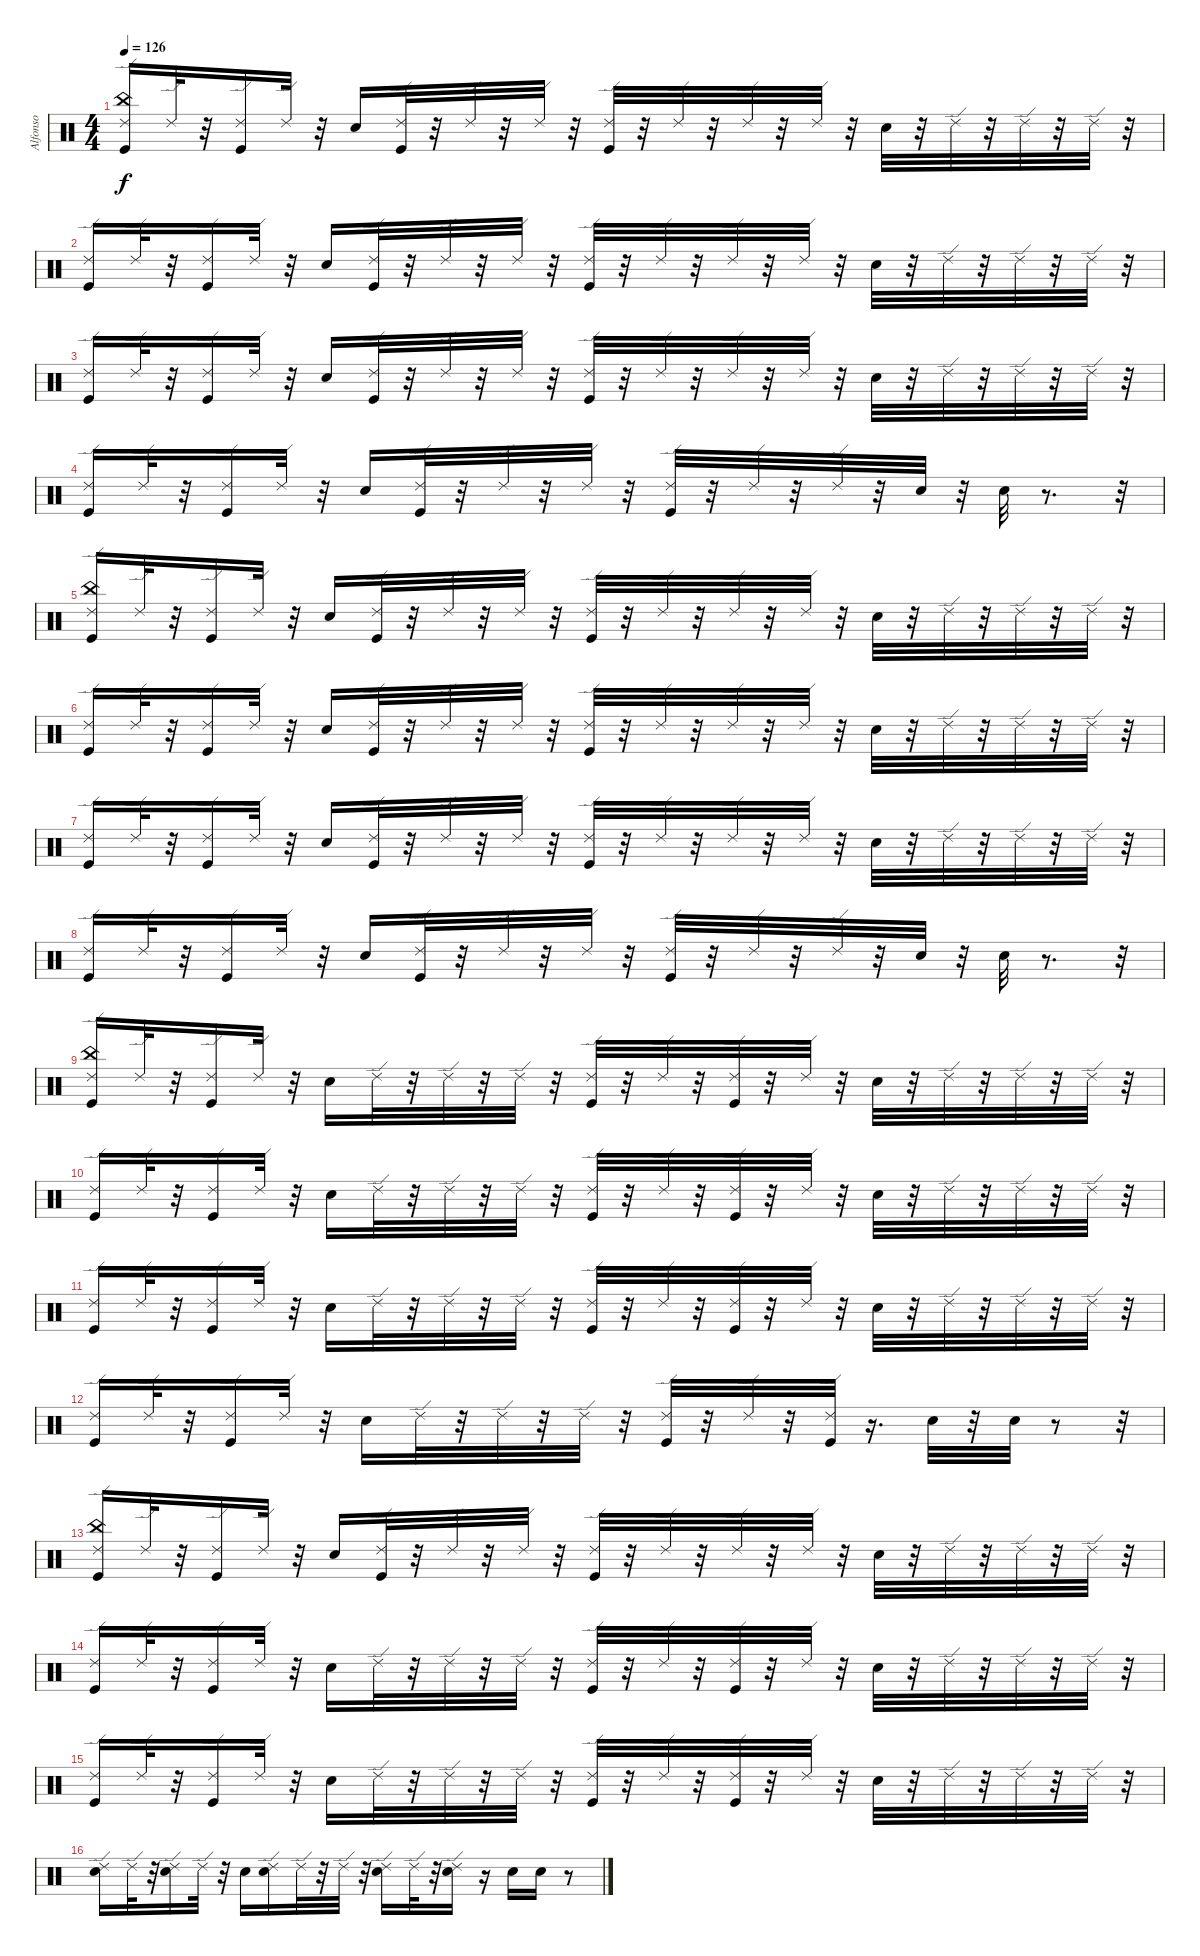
\track ("Alfonso" "Alfonso") {instrument percussion}
\staff {score}
\articulation defaults
\ts (4 4)
\tempo 126
\clef neutral
\ks c
("Ride (edge) 2" "China (hit)" "Kick (hit)").16{dy f} "Ride (edge) 2".32 r.32 ("Ride (edge) 2" "Kick (hit)").16 "Ride (edge) 2".32 r.32 "Snare (hit) 2".16 ("Kick (hit)" "Ride (edge) 2").32 r.32 "Ride (edge) 2".32 r.32 "Ride (edge) 2".32 r.32 ("Kick (hit)" "Ride (edge) 2").32 r.32 "Ride (edge) 2".32 r.32 "Ride (edge) 2".32 r.32 "Ride (edge) 2".32 r.32 "Snare (hit) 2".32 r.32 "Ride (edge) 2".32 r.32 "Ride (edge) 2".32 r.32 "Ride (edge) 2".32 r.32 |
("Ride (edge) 2" "Kick (hit)").16 "Ride (edge) 2".32 r.32 ("Kick (hit)" "Ride (edge) 2").16 "Ride (edge) 2".32 r.32 "Snare (hit) 2".16 ("Ride (edge) 2" "Kick (hit)").32 r.32 "Ride (edge) 2".32 r.32 "Ride (edge) 2".32 r.32 ("Kick (hit)" "Ride (edge) 2").32 r.32 "Ride (edge) 2".32 r.32 "Ride (edge) 2".32 r.32 "Ride (edge) 2".32 r.32 "Snare (hit) 2".32 r.32 "Ride (edge) 2".32 r.32 "Ride (edge) 2".32 r.32 "Ride (edge) 2".32 r.32 |
("Kick (hit)" "Ride (edge) 2").16 "Ride (edge) 2".32 r.32 ("Kick (hit)" "Ride (edge) 2").16 "Ride (edge) 2".32 r.32 "Snare (hit) 2".16 ("Ride (edge) 2" "Kick (hit)").32 r.32 "Ride (edge) 2".32 r.32 "Ride (edge) 2".32 r.32 ("Ride (edge) 2" "Kick (hit)").32 r.32 "Ride (edge) 2".32 r.32 "Ride (edge) 2".32 r.32 "Ride (edge) 2".32 r.32 "Snare (hit) 2".32 r.32 "Ride (edge) 2".32 r.32 "Ride (edge) 2".32 r.32 "Ride (edge) 2".32 r.32 |
("Kick (hit)" "Ride (edge) 2").16 "Ride (edge) 2".32 r.32 ("Kick (hit)" "Ride (edge) 2").16 "Ride (edge) 2".32 r.32 "Snare (hit) 2".16 ("Kick (hit)" "Ride (edge) 2").32 r.32 "Ride (edge) 2".32 r.32 "Ride (edge) 2".32 r.32 ("Kick (hit)" "Ride (edge) 2").32 r.32 "Ride (edge) 2".32 r.32 "Ride (edge) 2".32 r.32 "Snare (hit) 2".32 r.32 "Snare (hit) 2".32 r.8{d} r.32 |
("Ride (edge) 2" "China (hit)" "Kick (hit)").16 "Ride (edge) 2".32 r.32 ("Ride (edge) 2" "Kick (hit)").16 "Ride (edge) 2".32 r.32 "Snare (hit) 2".16 ("Kick (hit)" "Ride (edge) 2").32 r.32 "Ride (edge) 2".32 r.32 "Ride (edge) 2".32 r.32 ("Kick (hit)" "Ride (edge) 2").32 r.32 "Ride (edge) 2".32 r.32 "Ride (edge) 2".32 r.32 "Ride (edge) 2".32 r.32 "Snare (hit) 2".32 r.32 "Ride (edge) 2".32 r.32 "Ride (edge) 2".32 r.32 "Ride (edge) 2".32 r.32 |
("Ride (edge) 2" "Kick (hit)").16 "Ride (edge) 2".32 r.32 ("Kick (hit)" "Ride (edge) 2").16 "Ride (edge) 2".32 r.32 "Snare (hit) 2".16 ("Ride (edge) 2" "Kick (hit)").32 r.32 "Ride (edge) 2".32 r.32 "Ride (edge) 2".32 r.32 ("Kick (hit)" "Ride (edge) 2").32 r.32 "Ride (edge) 2".32 r.32 "Ride (edge) 2".32 r.32 "Ride (edge) 2".32 r.32 "Snare (hit) 2".32 r.32 "Ride (edge) 2".32 r.32 "Ride (edge) 2".32 r.32 "Ride (edge) 2".32 r.32 |
("Kick (hit)" "Ride (edge) 2").16 "Ride (edge) 2".32 r.32 ("Kick (hit)" "Ride (edge) 2").16 "Ride (edge) 2".32 r.32 "Snare (hit) 2".16 ("Ride (edge) 2" "Kick (hit)").32 r.32 "Ride (edge) 2".32 r.32 "Ride (edge) 2".32 r.32 ("Ride (edge) 2" "Kick (hit)").32 r.32 "Ride (edge) 2".32 r.32 "Ride (edge) 2".32 r.32 "Ride (edge) 2".32 r.32 "Snare (hit) 2".32 r.32 "Ride (edge) 2".32 r.32 "Ride (edge) 2".32 r.32 "Ride (edge) 2".32 r.32 |
("Kick (hit)" "Ride (edge) 2").16 "Ride (edge) 2".32 r.32 ("Kick (hit)" "Ride (edge) 2").16 "Ride (edge) 2".32 r.32 "Snare (hit) 2".16 ("Kick (hit)" "Ride (edge) 2").32 r.32 "Ride (edge) 2".32 r.32 "Ride (edge) 2".32 r.32 ("Kick (hit)" "Ride (edge) 2").32 r.32 "Ride (edge) 2".32 r.32 "Ride (edge) 2".32 r.32 "Snare (hit) 2".32 r.32 "Snare (hit) 2".32 r.8{d} r.32 |
("Ride (edge) 2" "China (hit)" "Kick (hit)").16 "Ride (edge) 2".32 r.32 ("Ride (edge) 2" "Kick (hit)").16 "Ride (edge) 2".32 r.32 "Snare (hit) 2".16 "Ride (edge) 2".32 r.32 "Ride (edge) 2".32 r.32 "Ride (edge) 2".32 r.32 ("Kick (hit)" "Ride (edge) 2").32 r.32 "Ride (edge) 2".32 r.32 ("Kick (hit)" "Ride (edge) 2").32 r.32 "Ride (edge) 2".32 r.32 "Snare (hit) 2".32 r.32 "Ride (edge) 2".32 r.32 "Ride (edge) 2".32 r.32 "Ride (edge) 2".32 r.32 |
("Ride (edge) 2" "Kick (hit)").16 "Ride (edge) 2".32 r.32 ("Kick (hit)" "Ride (edge) 2").16 "Ride (edge) 2".32 r.32 "Snare (hit) 2".16 "Ride (edge) 2".32 r.32 "Ride (edge) 2".32 r.32 "Ride (edge) 2".32 r.32 ("Kick (hit)" "Ride (edge) 2").32 r.32 "Ride (edge) 2".32 r.32 ("Kick (hit)" "Ride (edge) 2").32 r.32 "Ride (edge) 2".32 r.32 "Snare (hit) 2".32 r.32 "Ride (edge) 2".32 r.32 "Ride (edge) 2".32 r.32 "Ride (edge) 2".32 r.32 |
("Kick (hit)" "Ride (edge) 2").16 "Ride (edge) 2".32 r.32 ("Kick (hit)" "Ride (edge) 2").16 "Ride (edge) 2".32 r.32 "Snare (hit) 2".16 "Ride (edge) 2".32 r.32 "Ride (edge) 2".32 r.32 "Ride (edge) 2".32 r.32 ("Ride (edge) 2" "Kick (hit)").32 r.32 "Ride (edge) 2".32 r.32 ("Kick (hit)" "Ride (edge) 2").32 r.32 "Ride (edge) 2".32 r.32 "Snare (hit) 2".32 r.32 "Ride (edge) 2".32 r.32 "Ride (edge) 2".32 r.32 "Ride (edge) 2".32 r.32 |
("Kick (hit)" "Ride (edge) 2").16 "Ride (edge) 2".32 r.32 ("Kick (hit)" "Ride (edge) 2").16 "Ride (edge) 2".32 r.32 "Snare (hit) 2".16 "Ride (edge) 2".32 r.32 "Ride (edge) 2".32 r.32 "Ride (edge) 2".32 r.32 ("Kick (hit)" "Ride (edge) 2").32 r.32 "Ride (edge) 2".32 r.32 ("Kick (hit)" "Ride (edge) 2").32 r.16{d} "Snare (hit) 2".32 r.32 "Snare (hit) 2".32 r.8 r.32 |
("Ride (edge) 2" "China (hit)" "Kick (hit)").16 "Ride (edge) 2".32 r.32 ("Ride (edge) 2" "Kick (hit)").16 "Ride (edge) 2".32 r.32 "Snare (hit) 2".16 ("Kick (hit)" "Ride (edge) 2").32 r.32 "Ride (edge) 2".32 r.32 "Ride (edge) 2".32 r.32 ("Kick (hit)" "Ride (edge) 2").32 r.32 "Ride (edge) 2".32 r.32 "Ride (edge) 2".32 r.32 "Ride (edge) 2".32 r.32 "Snare (hit) 2".32 r.32 "Ride (edge) 2".32 r.32 "Ride (edge) 2".32 r.32 "Ride (edge) 2".32 r.32 |
("Ride (edge) 2" "Kick (hit)").16 "Ride (edge) 2".32 r.32 ("Kick (hit)" "Ride (edge) 2").16 "Ride (edge) 2".32 r.32 "Snare (hit) 2".16 "Ride (edge) 2".32 r.32 "Ride (edge) 2".32 r.32 "Ride (edge) 2".32 r.32 ("Kick (hit)" "Ride (edge) 2").32 r.32 "Ride (edge) 2".32 r.32 ("Kick (hit)" "Ride (edge) 2").32 r.32 "Ride (edge) 2".32 r.32 "Snare (hit) 2".32 r.32 "Ride (edge) 2".32 r.32 "Ride (edge) 2".32 r.32 "Ride (edge) 2".32 r.32 |
("Kick (hit)" "Ride (edge) 2").16 "Ride (edge) 2".32 r.32 ("Kick (hit)" "Ride (edge) 2").16 "Ride (edge) 2".32 r.32 "Snare (hit) 2".16 "Ride (edge) 2".32 r.32 "Ride (edge) 2".32 r.32 "Ride (edge) 2".32 r.32 ("Ride (edge) 2" "Kick (hit)").32 r.32 "Ride (edge) 2".32 r.32 ("Kick (hit)" "Ride (edge) 2").32 r.32 "Ride (edge) 2".32 r.32 "Snare (hit) 2".32 r.32 "Ride (edge) 2".32 r.32 "Ride (edge) 2".32 r.32 "Ride (edge) 2".32 r.32 |
("Snare (hit) 2" "Ride (edge) 2").16 "Ride (edge) 2".32 r.32 ("Snare (hit) 2" "Ride (edge) 2").16 "Ride (edge) 2".32 r.32 "Snare (hit) 2".16 ("Snare (hit) 2" "Ride (edge) 2").16 "Ride (edge) 2".32 r.32 "Ride (edge) 2".32 r.32 ("Ride (edge) 2" "Snare (hit) 2").16 "Ride (edge) 2".32 r.32 ("Ride (edge) 2" "Snare (hit) 2").16 r.16 "Snare (hit) 2".16 "Snare (hit) 2".16 r.8
